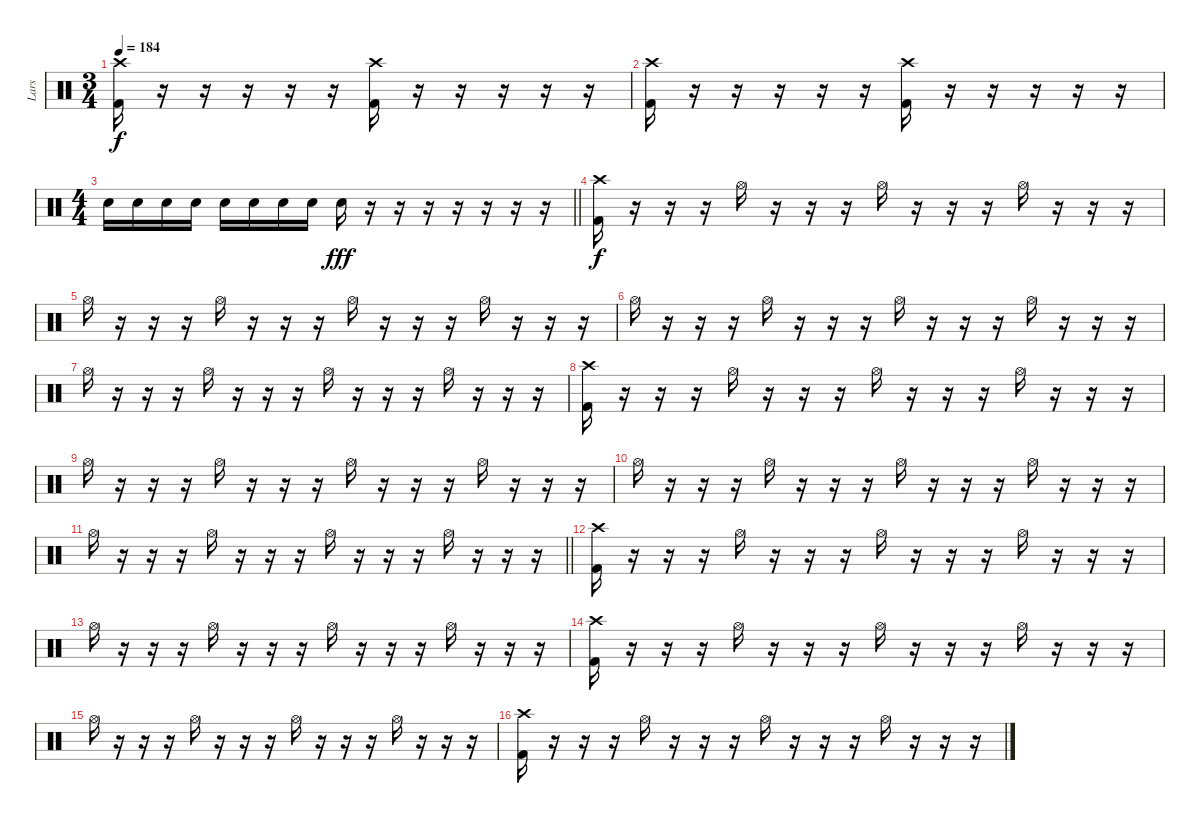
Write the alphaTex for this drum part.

\track ("Lars" "Lars") {instrument percussion}
\staff {score}
\articulation defaults
\ts (3 4)
\tempo 184
\clef neutral
\ks c
("Crash high (hit)" "Kick (hit) 2").16{dy f} r.16 r.16 r.16 r.16 r.16 ("Crash high (hit)" "Kick (hit) 2").16 r.16 r.16 r.16 r.16 r.16 |
("Crash high (hit)" "Kick (hit) 2").16 r.16 r.16 r.16 r.16 r.16 ("Crash high (hit)" "Kick (hit) 2").16 r.16 r.16 r.16 r.16 r.16 |
\ts (4 4)
\barLineRight lightlight "Electric Snare (hit)".16 "Electric Snare (hit)".16 "Electric Snare (hit)".16 "Electric Snare (hit)".16 "Electric Snare (hit)".16 "Electric Snare (hit)".16 "Electric Snare (hit)".16 "Electric Snare (hit)".16 "Electric Snare (hit)".16{dy fff}
r.16 r.16 r.16 r.16 r.16 r.16 r.16 |
("Crash high (hit)" "Kick (hit) 2").16{dy f} r.16 r.16 r.16 "Hi-Hat (open)".16 r.16 r.16 r.16 "Hi-Hat (open)".16 r.16 r.16 r.16 "Hi-Hat (open)".16 r.16 r.16 r.16 |
"Hi-Hat (open)".16 r.16 r.16 r.16 "Hi-Hat (open)".16 r.16 r.16 r.16 "Hi-Hat (open)".16 r.16 r.16 r.16 "Hi-Hat (open)".16 r.16 r.16 r.16 |
"Hi-Hat (open)".16 r.16 r.16 r.16 "Hi-Hat (open)".16 r.16 r.16 r.16 "Hi-Hat (open)".16 r.16 r.16 r.16 "Hi-Hat (open)".16 r.16 r.16 r.16 |
"Hi-Hat (open)".16 r.16 r.16 r.16 "Hi-Hat (open)".16 r.16 r.16 r.16 "Hi-Hat (open)".16 r.16 r.16 r.16 "Hi-Hat (open)".16 r.16 r.16 r.16 |
("Crash high (hit)" "Kick (hit) 2").16 r.16 r.16 r.16 "Hi-Hat (open)".16 r.16 r.16 r.16 "Hi-Hat (open)".16 r.16 r.16 r.16 "Hi-Hat (open)".16 r.16 r.16 r.16 |
"Hi-Hat (open)".16 r.16 r.16 r.16 "Hi-Hat (open)".16 r.16 r.16 r.16 "Hi-Hat (open)".16 r.16 r.16 r.16 "Hi-Hat (open)".16 r.16 r.16 r.16 |
"Hi-Hat (open)".16 r.16 r.16 r.16 "Hi-Hat (open)".16 r.16 r.16 r.16 "Hi-Hat (open)".16 r.16 r.16 r.16 "Hi-Hat (open)".16 r.16 r.16 r.16 |
\barLineRight lightlight "Hi-Hat (open)".16
r.16 r.16 r.16 "Hi-Hat (open)".16 r.16 r.16 r.16 "Hi-Hat (open)".16 r.16 r.16 r.16 "Hi-Hat (open)".16 r.16 r.16 r.16 |
("Crash high (hit)" "Kick (hit) 2").16 r.16 r.16 r.16 "Hi-Hat (open)".16 r.16 r.16 r.16 "Hi-Hat (open)".16 r.16 r.16 r.16 "Hi-Hat (open)".16 r.16 r.16 r.16 |
"Hi-Hat (open)".16 r.16 r.16 r.16 "Hi-Hat (open)".16 r.16 r.16 r.16 "Hi-Hat (open)".16 r.16 r.16 r.16 "Hi-Hat (open)".16 r.16 r.16 r.16 |
("Crash high (hit)" "Kick (hit) 2").16 r.16 r.16 r.16 "Hi-Hat (open)".16 r.16 r.16 r.16 "Hi-Hat (open)".16 r.16 r.16 r.16 "Hi-Hat (open)".16 r.16 r.16 r.16 |
"Hi-Hat (open)".16 r.16 r.16 r.16 "Hi-Hat (open)".16 r.16 r.16 r.16 "Hi-Hat (open)".16 r.16 r.16 r.16 "Hi-Hat (open)".16 r.16 r.16 r.16 |
("Crash high (hit)" "Kick (hit) 2").16 r.16 r.16 r.16 "Hi-Hat (open)".16 r.16 r.16 r.16 "Hi-Hat (open)".16 r.16 r.16 r.16 "Hi-Hat (open)".16 r.16 r.16 r.16
